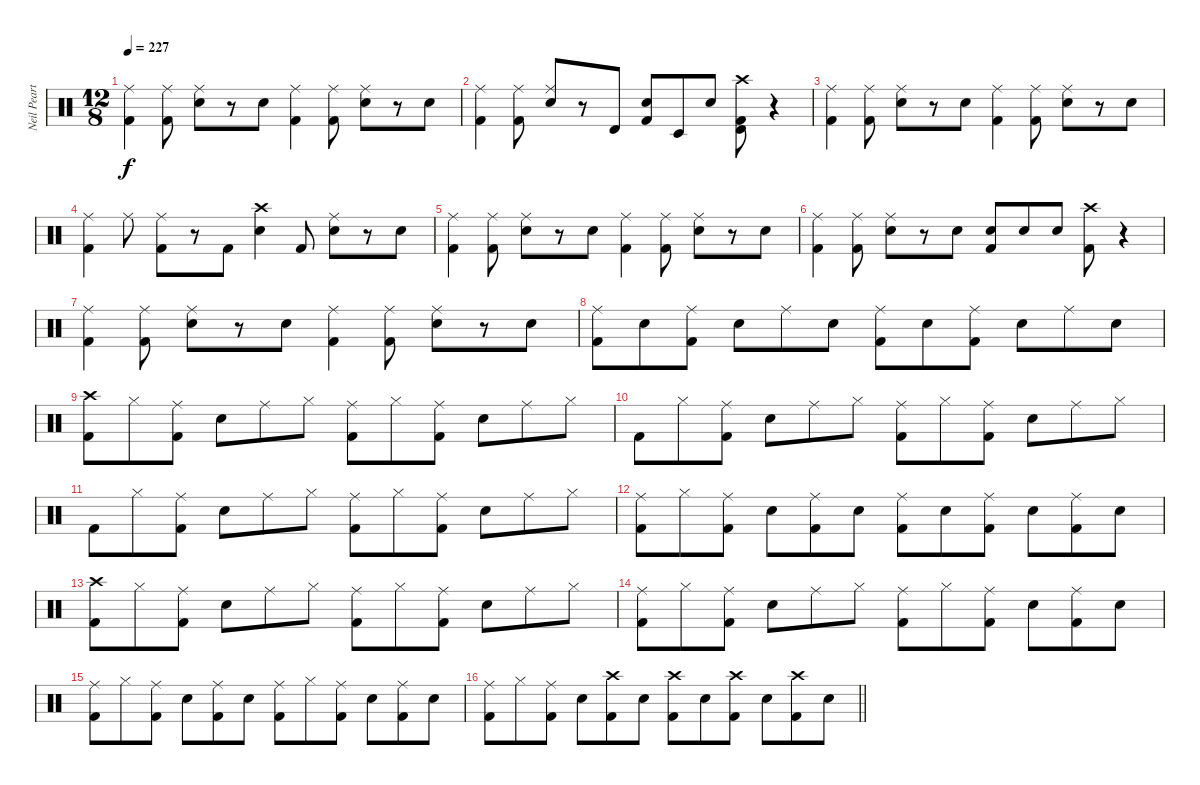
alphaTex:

\track ("Neil Peart" "Neil Peart") {instrument percussion}
\staff {score}
\articulation defaults
\ts (12 8)
\tempo 227
\clef neutral
\ks c
("Ride (middle)" "Kick (hit) 2").4{dy f} ("Ride (middle)" "Kick (hit) 2").8 ("Electric Snare (hit)" "Ride (middle)").8 r.8 "Electric Snare (hit)".8 ("Ride (middle)" "Kick (hit) 2").4 ("Ride (middle)" "Kick (hit) 2").8 ("Electric Snare (hit)" "Ride (middle)").8 r.8 "Electric Snare (hit)".8 |
("Ride (middle)" "Kick (hit) 2").4 ("Ride (middle)" "Kick (hit) 2").8 ("Electric Snare (hit)" "Ride (middle)").8 r.8 "Timbale high (hit)".8 ("Electric Snare (hit)" "Kick (hit) 2").8 "Timbale low (hit)".8 "Electric Snare (hit)".8 ("Crash high (hit)" "Timbale high (hit)" "Kick (hit) 2").8 r.4 |
("Ride (middle)" "Kick (hit) 2").4 ("Ride (middle)" "Kick (hit) 2").8 ("Electric Snare (hit)" "Ride (middle)").8 r.8 "Electric Snare (hit)".8 ("Ride (middle)" "Kick (hit) 2").4 ("Ride (middle)" "Kick (hit) 2").8 ("Electric Snare (hit)" "Ride (middle)").8 r.8 "Electric Snare (hit)".8 |
("Ride (middle)" "Kick (hit) 2").4 "Ride (middle)".8 ("Ride (middle)" "Kick (hit) 2").8 r.8 "Kick (hit) 2".8 ("Electric Snare (hit)" "Crash high (hit)").4 "Kick (hit) 2".8 ("Electric Snare (hit)" "Ride (middle)").8 r.8 "Electric Snare (hit)".8 |
("Ride (middle)" "Kick (hit) 2").4 ("Ride (middle)" "Kick (hit) 2").8 ("Electric Snare (hit)" "Ride (middle)").8 r.8 "Electric Snare (hit)".8 ("Ride (middle)" "Kick (hit) 2").4 ("Ride (middle)" "Kick (hit) 2").8 ("Electric Snare (hit)" "Ride (middle)").8 r.8 "Electric Snare (hit)".8 |
("Ride (middle)" "Kick (hit) 2").4 ("Ride (middle)" "Kick (hit) 2").8 ("Electric Snare (hit)" "Ride (middle)").8 r.8 "Electric Snare (hit)".8 ("Electric Snare (hit)" "Kick (hit) 2").8 "Electric Snare (hit)".8 "Electric Snare (hit)".8 ("Crash high (hit)" "Kick (hit) 2").8 r.4 |
("Ride (middle)" "Kick (hit) 2").4 ("Ride (middle)" "Kick (hit) 2").8 ("Electric Snare (hit)" "Ride (middle)").8 r.8 "Electric Snare (hit)".8 ("Ride (middle)" "Kick (hit) 2").4 ("Ride (middle)" "Kick (hit) 2").8 ("Electric Snare (hit)" "Ride (middle)").8 r.8 "Electric Snare (hit)".8 |
("Ride (middle)" "Kick (hit) 2").8 "Electric Snare (hit)".8 ("Ride (middle)" "Kick (hit) 2").8 "Electric Snare (hit)".8 "Ride (middle)".8 "Electric Snare (hit)".8 ("Ride (middle)" "Kick (hit) 2").8 "Electric Snare (hit)".8 ("Ride (middle)" "Kick (hit) 2").8 "Electric Snare (hit)".8 "Ride (middle)".8 "Electric Snare (hit)".8 |
("Crash high (hit)" "Kick (hit) 2").8 "Hi-Hat (closed)".8 ("Ride (middle)" "Kick (hit) 2").8 "Electric Snare (hit)".8 "Ride (middle)".8 "Hi-Hat (closed)".8 ("Ride (middle)" "Kick (hit) 2").8 "Hi-Hat (closed)".8 ("Ride (middle)" "Kick (hit) 2").8 "Electric Snare (hit)".8 "Ride (middle)".8 "Hi-Hat (closed)".8 |
"Kick (hit) 2".8 "Hi-Hat (closed)".8 ("Ride (middle)" "Kick (hit) 2").8 "Electric Snare (hit)".8 "Ride (middle)".8 "Hi-Hat (closed)".8 ("Ride (middle)" "Kick (hit) 2").8 "Hi-Hat (closed)".8 ("Ride (middle)" "Kick (hit) 2").8 "Electric Snare (hit)".8 "Ride (middle)".8 "Hi-Hat (closed)".8 |
"Kick (hit) 2".8 "Hi-Hat (closed)".8 ("Ride (middle)" "Kick (hit) 2").8 "Electric Snare (hit)".8 "Ride (middle)".8 "Hi-Hat (closed)".8 ("Ride (middle)" "Kick (hit) 2").8 "Hi-Hat (closed)".8 ("Ride (middle)" "Kick (hit) 2").8 "Electric Snare (hit)".8 "Ride (middle)".8 "Hi-Hat (closed)".8 |
("Ride (middle)" "Kick (hit) 2").8 "Hi-Hat (closed)".8 ("Ride (middle)" "Kick (hit) 2").8 "Electric Snare (hit)".8 ("Ride (middle)" "Kick (hit) 2").8 "Electric Snare (hit)".8 ("Ride (middle)" "Kick (hit) 2").8 "Electric Snare (hit)".8 ("Ride (middle)" "Kick (hit) 2").8 "Electric Snare (hit)".8 ("Ride (middle)" "Kick (hit) 2").8 "Electric Snare (hit)".8 |
("Crash high (hit)" "Kick (hit) 2").8 "Hi-Hat (closed)".8 ("Ride (middle)" "Kick (hit) 2").8 "Electric Snare (hit)".8 "Ride (middle)".8 "Hi-Hat (closed)".8 ("Ride (middle)" "Kick (hit) 2").8 "Hi-Hat (closed)".8 ("Ride (middle)" "Kick (hit) 2").8 "Electric Snare (hit)".8 "Ride (middle)".8 "Hi-Hat (closed)".8 |
("Ride (middle)" "Kick (hit) 2").8 "Hi-Hat (closed)".8 ("Ride (middle)" "Kick (hit) 2").8 "Electric Snare (hit)".8 "Ride (middle)".8 "Hi-Hat (closed)".8 ("Ride (middle)" "Kick (hit) 2").8 "Hi-Hat (closed)".8 ("Ride (middle)" "Kick (hit) 2").8 "Electric Snare (hit)".8 ("Ride (middle)" "Kick (hit) 2").8 "Electric Snare (hit)".8 |
("Ride (middle)" "Kick (hit) 2").8 "Hi-Hat (closed)".8 ("Ride (middle)" "Kick (hit) 2").8 "Electric Snare (hit)".8 ("Ride (middle)" "Kick (hit) 2").8 "Electric Snare (hit)".8 ("Ride (middle)" "Kick (hit) 2").8 "Hi-Hat (closed)".8 ("Ride (middle)" "Kick (hit) 2").8 "Electric Snare (hit)".8 ("Ride (middle)" "Kick (hit) 2").8 "Electric Snare (hit)".8 |
\barLineRight lightlight
("Ride (middle)" "Kick (hit) 2").8 "Hi-Hat (closed)".8 ("Ride (middle)" "Kick (hit) 2").8 "Electric Snare (hit)".8 ("Crash high (hit)" "Kick (hit) 2").8 "Electric Snare (hit)".8 ("Crash high (hit)" "Kick (hit) 2").8 "Electric Snare (hit)".8 ("Crash high (hit)" "Kick (hit) 2").8 "Electric Snare (hit)".8 ("Crash high (hit)" "Kick (hit) 2").8 "Electric Snare (hit)".8
